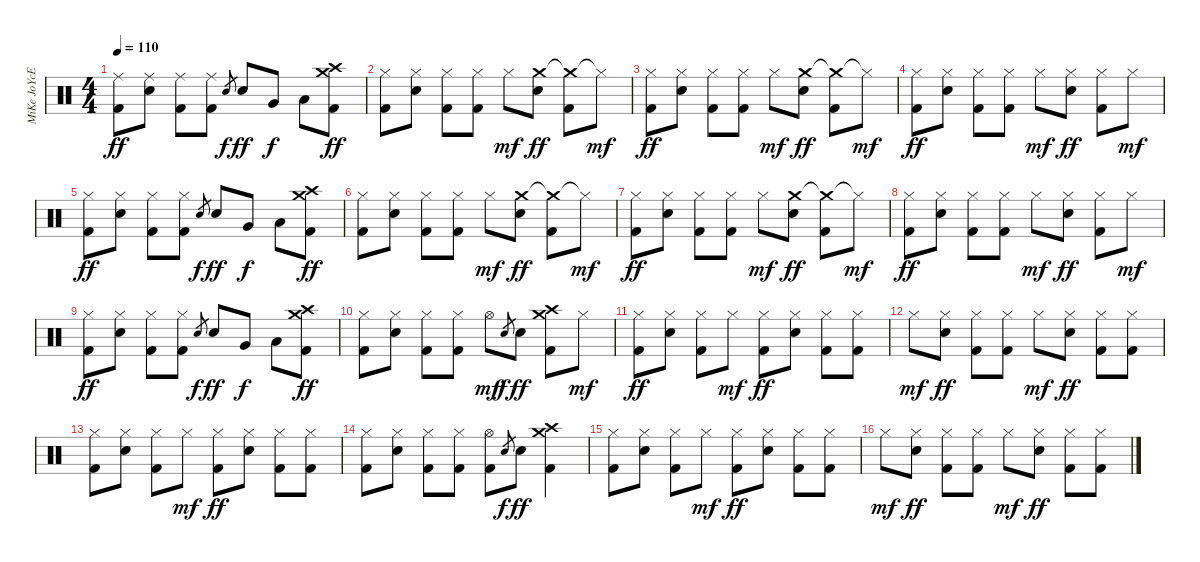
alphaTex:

\track ("MiKe JoYcE" "MiKe JoYcE") {instrument percussion}
\staff {score}
\articulation defaults
\ts (4 4)
\tempo 110
\clef neutral
\ks c
("Ride (middle)" "Kick (hit) 2").8{dy ff} ("Ride (middle)" "Electric Snare (hit)").8 ("Ride (middle)" "Kick (hit) 2").8 ("Ride (middle)" "Kick (hit) 2").8 "Electric Snare (hit)".8{gr dy f} "Electric Snare (hit)".8{dy ff} "Very Low Tom (hit)".8{dy f} "Low Floor Tom (hit)".8 ("Crash high (hit)" "Crash medium (hit)" "Kick (hit) 2").8{dy ff} |
("Hi-Hat (closed)" "Kick (hit) 2").8 ("Hi-Hat (closed)" "Electric Snare (hit)").8 ("Hi-Hat (closed)" "Kick (hit) 2").8 ("Hi-Hat (closed)" "Kick (hit) 2").8 "Hi-Hat (closed)".8{dy mf} ("Crash medium (hit)" "Electric Snare (hit)").8{dy ff} ("Crash medium (hit)"{t} "Kick (hit) 2").8 "Hi-Hat (closed)"{t}.8{dy mf} |
("Hi-Hat (closed)" "Kick (hit) 2").8{dy ff} ("Hi-Hat (closed)" "Electric Snare (hit)").8 ("Hi-Hat (closed)" "Kick (hit) 2").8 ("Hi-Hat (closed)" "Kick (hit) 2").8 "Hi-Hat (closed)".8{dy mf} ("Crash medium (hit)" "Electric Snare (hit)").8{dy ff} ("Crash medium (hit)"{t} "Kick (hit) 2").8 "Hi-Hat (closed)"{t}.8{dy mf} |
("Hi-Hat (closed)" "Kick (hit) 2").8{dy ff} ("Hi-Hat (closed)" "Electric Snare (hit)").8 ("Hi-Hat (closed)" "Kick (hit) 2").8 ("Hi-Hat (closed)" "Kick (hit) 2").8 "Hi-Hat (closed)".8{dy mf} ("Hi-Hat (closed)" "Electric Snare (hit)").8{dy ff} ("Hi-Hat (closed)" "Kick (hit) 2").8 "Hi-Hat (closed)".8{dy mf} |
("Hi-Hat (closed)" "Kick (hit) 2").8{dy ff} ("Hi-Hat (closed)" "Electric Snare (hit)").8 ("Hi-Hat (closed)" "Kick (hit) 2").8 ("Hi-Hat (closed)" "Kick (hit) 2").8 "Electric Snare (hit)".8{gr dy f} "Electric Snare (hit)".8{dy ff} "Very Low Tom (hit)".8{dy f} "Low Floor Tom (hit)".8 ("Crash high (hit)" "Crash medium (hit)" "Kick (hit) 2").8{dy ff} |
("Hi-Hat (closed)" "Kick (hit) 2").8 ("Hi-Hat (closed)" "Electric Snare (hit)").8 ("Hi-Hat (closed)" "Kick (hit) 2").8 ("Hi-Hat (closed)" "Kick (hit) 2").8 "Hi-Hat (closed)".8{dy mf} ("Crash medium (hit)" "Electric Snare (hit)").8{dy ff} ("Crash medium (hit)"{t} "Kick (hit) 2").8 "Hi-Hat (closed)"{t}.8{dy mf} |
("Hi-Hat (closed)" "Kick (hit) 2").8{dy ff} ("Hi-Hat (closed)" "Electric Snare (hit)").8 ("Hi-Hat (closed)" "Kick (hit) 2").8 ("Hi-Hat (closed)" "Kick (hit) 2").8 "Hi-Hat (closed)".8{dy mf} ("Crash medium (hit)" "Electric Snare (hit)").8{dy ff} ("Crash medium (hit)"{t} "Kick (hit) 2").8 "Hi-Hat (closed)"{t}.8{dy mf} |
("Hi-Hat (closed)" "Kick (hit) 2").8{dy ff} ("Hi-Hat (closed)" "Electric Snare (hit)").8 ("Hi-Hat (closed)" "Kick (hit) 2").8 ("Hi-Hat (closed)" "Kick (hit) 2").8 "Hi-Hat (closed)".8{dy mf} ("Hi-Hat (closed)" "Electric Snare (hit)").8{dy ff} ("Hi-Hat (closed)" "Kick (hit) 2").8 "Hi-Hat (closed)".8{dy mf} |
("Hi-Hat (closed)" "Kick (hit) 2").8{dy ff} ("Hi-Hat (closed)" "Electric Snare (hit)").8 ("Hi-Hat (closed)" "Kick (hit) 2").8 ("Hi-Hat (closed)" "Kick (hit) 2").8 "Electric Snare (hit)".8{gr dy f} "Electric Snare (hit)".8{dy ff} "Very Low Tom (hit)".8{dy f} "Low Floor Tom (hit)".8 ("Crash high (hit)" "Crash medium (hit)" "Kick (hit) 2").8{dy ff} |
("Hi-Hat (closed)" "Kick (hit) 2").8 ("Hi-Hat (closed)" "Electric Snare (hit)").8 ("Hi-Hat (closed)" "Kick (hit) 2").8 ("Hi-Hat (closed)" "Kick (hit) 2").8 "Hi-Hat (open)".8{dy mf} "Electric Snare (hit)".8{gr dy f} "Electric Snare (hit)".8{dy ff} ("Crash medium (hit)" "Crash high (hit)" "Kick (hit) 2").8 "Hi-Hat (closed)".8{dy mf} |
("Hi-Hat (closed)" "Kick (hit) 2").8{dy ff} ("Hi-Hat (closed)" "Electric Snare (hit)").8 ("Hi-Hat (closed)" "Kick (hit) 2").8 "Hi-Hat (closed)".8{dy mf} ("Hi-Hat (closed)" "Kick (hit) 2").8{dy ff} ("Hi-Hat (closed)" "Electric Snare (hit)").8 ("Hi-Hat (closed)" "Kick (hit) 2").8 ("Hi-Hat (closed)" "Kick (hit) 2").8 |
"Hi-Hat (closed)".8{dy mf} ("Hi-Hat (closed)" "Electric Snare (hit)").8{dy ff} ("Hi-Hat (closed)" "Kick (hit) 2").8 ("Hi-Hat (closed)" "Kick (hit) 2").8 "Hi-Hat (closed)".8{dy mf} ("Hi-Hat (closed)" "Electric Snare (hit)").8{dy ff} ("Hi-Hat (closed)" "Kick (hit) 2").8 ("Hi-Hat (closed)" "Kick (hit) 2").8 |
("Hi-Hat (closed)" "Kick (hit) 2").8 ("Hi-Hat (closed)" "Electric Snare (hit)").8 ("Hi-Hat (closed)" "Kick (hit) 2").8 "Hi-Hat (closed)".8{dy mf} ("Hi-Hat (closed)" "Kick (hit) 2").8{dy ff} ("Hi-Hat (closed)" "Electric Snare (hit)").8 ("Hi-Hat (closed)" "Kick (hit) 2").8 ("Hi-Hat (closed)" "Kick (hit) 2").8 |
("Hi-Hat (closed)" "Kick (hit) 2").8 ("Hi-Hat (closed)" "Electric Snare (hit)").8 ("Hi-Hat (closed)" "Kick (hit) 2").8 ("Hi-Hat (closed)" "Kick (hit) 2").8 ("Hi-Hat (open)" "Kick (hit) 2").8 "Electric Snare (hit)".8{gr dy f} "Electric Snare (hit)".8{dy ff} ("Crash high (hit)" "Crash medium (hit)" "Kick (hit) 2").4 |
("Hi-Hat (closed)" "Kick (hit) 2").8 ("Hi-Hat (closed)" "Electric Snare (hit)").8 ("Hi-Hat (closed)" "Kick (hit) 2").8 "Hi-Hat (closed)".8{dy mf} ("Hi-Hat (closed)" "Kick (hit) 2").8{dy ff} ("Hi-Hat (closed)" "Electric Snare (hit)").8 ("Hi-Hat (closed)" "Kick (hit) 2").8 ("Hi-Hat (closed)" "Kick (hit) 2").8 |
"Hi-Hat (closed)".8{dy mf} ("Hi-Hat (closed)" "Electric Snare (hit)").8{dy ff} ("Hi-Hat (closed)" "Kick (hit) 2").8 ("Hi-Hat (closed)" "Kick (hit) 2").8 "Hi-Hat (closed)".8{dy mf} ("Hi-Hat (closed)" "Electric Snare (hit)").8{dy ff} ("Hi-Hat (closed)" "Kick (hit) 2").8 ("Hi-Hat (closed)" "Kick (hit) 2").8
